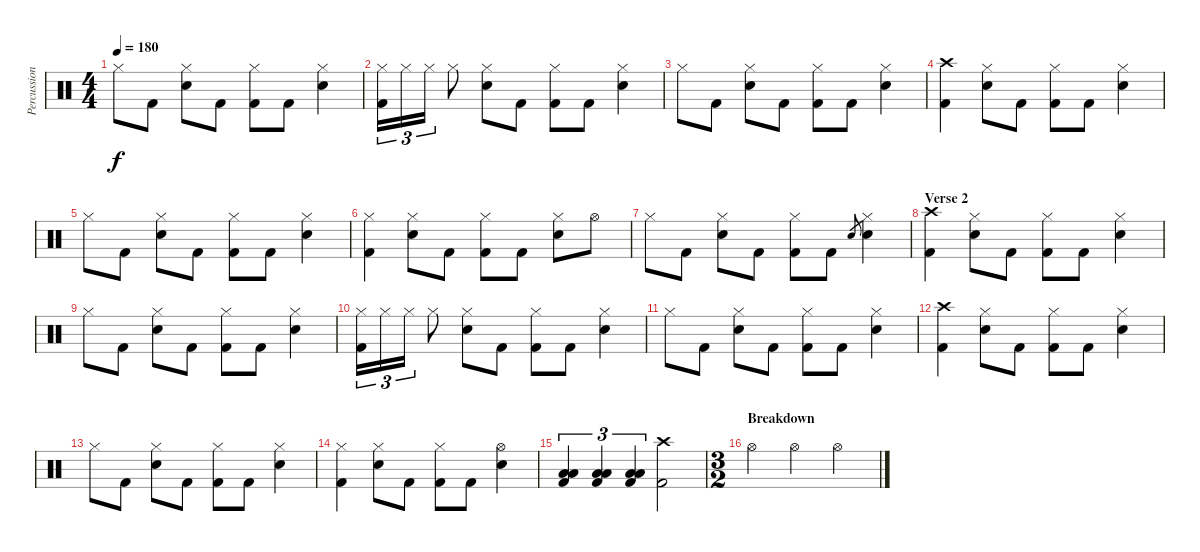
\track ("Percussion" "Percussion") {instrument percussion}
\staff {score}
\articulation defaults
\ts (4 4)
\tempo 180
\clef neutral
\ks c "Hi-Hat (closed)".8{dy f} "Kick (hit) 2".8
("Hi-Hat (closed)" "Electric Snare (hit)").8 "Kick (hit) 2".8 ("Hi-Hat (closed)" "Kick (hit) 2").8 "Kick (hit) 2".8 ("Hi-Hat (closed)" "Electric Snare (hit)").4 |
("Hi-Hat (closed)" "Kick (hit) 2").16{tu (3 2)} "Hi-Hat (closed)".16{tu (3 2)} "Hi-Hat (closed)".16{tu (3 2)} "Hi-Hat (closed)".8 ("Hi-Hat (closed)" "Electric Snare (hit)").8 "Kick (hit) 2".8 ("Hi-Hat (closed)" "Kick (hit) 2").8 "Kick (hit) 2".8 ("Hi-Hat (closed)" "Electric Snare (hit)").4 |
"Hi-Hat (closed)".8 "Kick (hit) 2".8 ("Hi-Hat (closed)" "Electric Snare (hit)").8 "Kick (hit) 2".8 ("Hi-Hat (closed)" "Kick (hit) 2").8 "Kick (hit) 2".8 ("Hi-Hat (closed)" "Electric Snare (hit)").4 |
("Crash high (hit)" "Kick (hit) 2").4 ("Hi-Hat (closed)" "Electric Snare (hit)").8 "Kick (hit) 2".8 ("Hi-Hat (closed)" "Kick (hit) 2").8 "Kick (hit) 2".8 ("Hi-Hat (closed)" "Electric Snare (hit)").4 |
"Hi-Hat (closed)".8 "Kick (hit) 2".8 ("Hi-Hat (closed)" "Electric Snare (hit)").8 "Kick (hit) 2".8 ("Hi-Hat (closed)" "Kick (hit) 2").8 "Kick (hit) 2".8 ("Hi-Hat (closed)" "Electric Snare (hit)").4 |
("Hi-Hat (closed)" "Kick (hit) 2").4 ("Hi-Hat (closed)" "Electric Snare (hit)").8 "Kick (hit) 2".8 ("Hi-Hat (closed)" "Kick (hit) 2").8 "Kick (hit) 2".8 ("Hi-Hat (closed)" "Electric Snare (hit)").8 "Hi-Hat (open)".8 |
"Hi-Hat (closed)".8 "Kick (hit) 2".8 ("Hi-Hat (closed)" "Electric Snare (hit)").8 "Kick (hit) 2".8 ("Hi-Hat (closed)" "Kick (hit) 2").8 "Kick (hit) 2".8 "Electric Snare (hit)".8{gr} ("Hi-Hat (closed)" "Electric Snare (hit)").4 |
\section ("" "Verse 2")
("Crash high (hit)" "Kick (hit) 2").4 ("Hi-Hat (closed)" "Electric Snare (hit)").8 "Kick (hit) 2".8 ("Hi-Hat (closed)" "Kick (hit) 2").8 "Kick (hit) 2".8 ("Hi-Hat (closed)" "Electric Snare (hit)").4 |
"Hi-Hat (closed)".8 "Kick (hit) 2".8 ("Hi-Hat (closed)" "Electric Snare (hit)").8 "Kick (hit) 2".8 ("Hi-Hat (closed)" "Kick (hit) 2").8 "Kick (hit) 2".8 ("Hi-Hat (closed)" "Electric Snare (hit)").4 |
("Hi-Hat (closed)" "Kick (hit) 2").16{tu (3 2)} "Hi-Hat (closed)".16{tu (3 2)} "Hi-Hat (closed)".16{tu (3 2)} "Hi-Hat (closed)".8 ("Hi-Hat (closed)" "Electric Snare (hit)").8 "Kick (hit) 2".8 ("Hi-Hat (closed)" "Kick (hit) 2").8 "Kick (hit) 2".8 ("Hi-Hat (closed)" "Electric Snare (hit)").4 |
"Hi-Hat (closed)".8 "Kick (hit) 2".8 ("Hi-Hat (closed)" "Electric Snare (hit)").8 "Kick (hit) 2".8 ("Hi-Hat (closed)" "Kick (hit) 2").8 "Kick (hit) 2".8 ("Hi-Hat (closed)" "Electric Snare (hit)").4 |
("Crash high (hit)" "Kick (hit) 2").4 ("Hi-Hat (closed)" "Electric Snare (hit)").8 "Kick (hit) 2".8 ("Hi-Hat (closed)" "Kick (hit) 2").8 "Kick (hit) 2".8 ("Hi-Hat (closed)" "Electric Snare (hit)").4 |
"Hi-Hat (closed)".8 "Kick (hit) 2".8 ("Hi-Hat (closed)" "Electric Snare (hit)").8 "Kick (hit) 2".8 ("Hi-Hat (closed)" "Kick (hit) 2").8 "Kick (hit) 2".8 ("Hi-Hat (closed)" "Electric Snare (hit)").4 |
("Hi-Hat (closed)" "Kick (hit) 2").4 ("Hi-Hat (closed)" "Electric Snare (hit)").8 "Kick (hit) 2".8 ("Hi-Hat (closed)" "Kick (hit) 2").8 "Kick (hit) 2".8 ("Hi-Hat (open)" "Electric Snare (hit)").4 |
("Low Floor Tom (hit)" "Low Tom (hit)" "Kick (hit) 2").4{tu (3 2)} ("Low Floor Tom (hit)" "Low Tom (hit)" "Kick (hit) 2").4{tu (3 2)} ("Low Floor Tom (hit)" "Low Tom (hit)" "Kick (hit) 2").4{tu (3 2)} ("Crash high (hit)" "Kick (hit) 2").2 |
\ts (3 2)
\section ("" "Breakdown")
"Hi-Hat (open)".2 "Hi-Hat (open)".2 "Hi-Hat (open)".2
